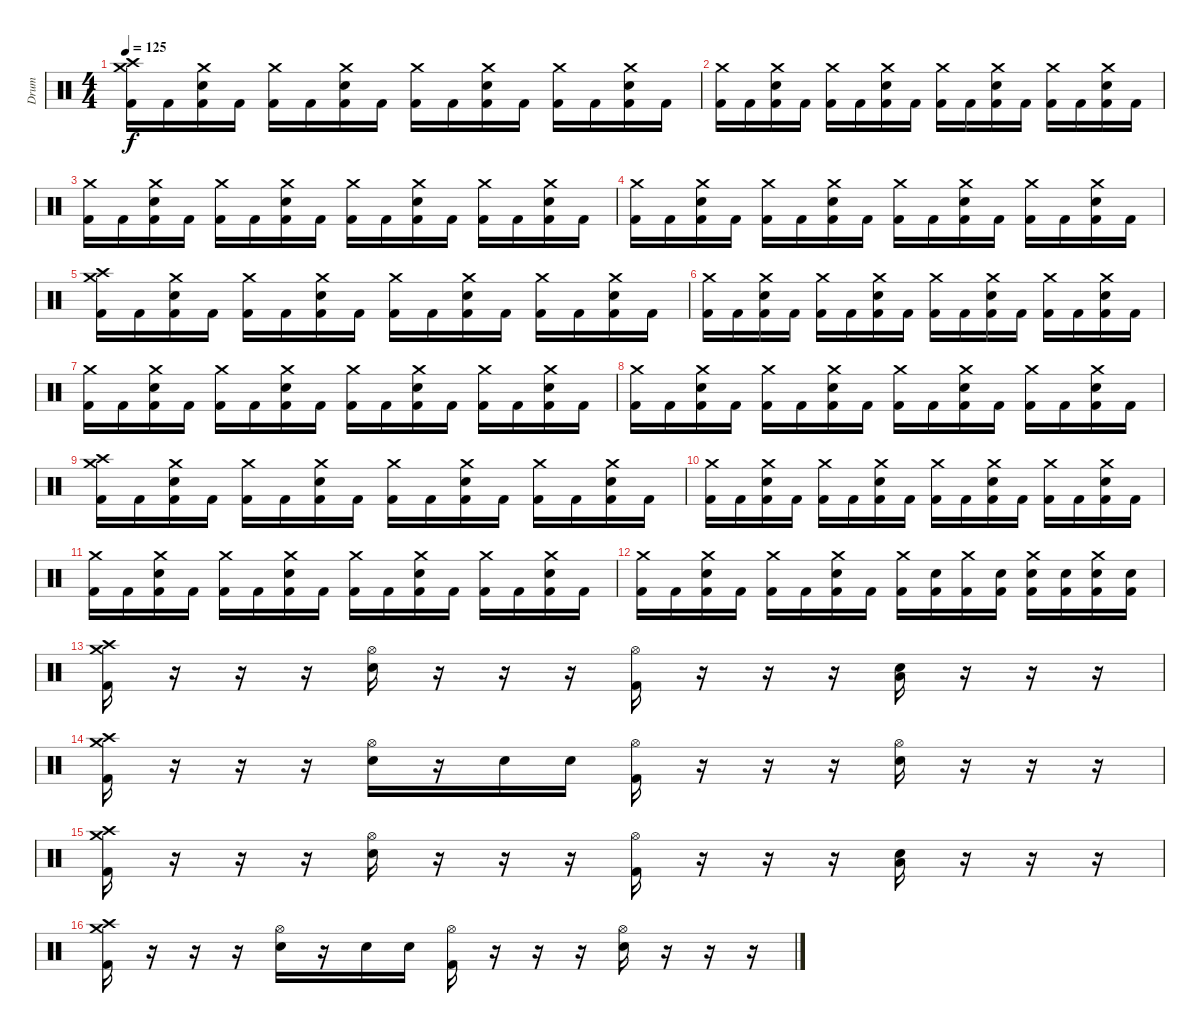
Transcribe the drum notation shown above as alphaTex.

\track ("Drum" "Drum") {instrument percussion}
\staff {score}
\articulation defaults
\ts (4 4)
\tempo 125
\clef neutral
\ks c
("Crash high (hit)" "Crash medium (hit)" "Kick (hit) 2").16{dy f} "Kick (hit) 2".16 ("Crash medium (hit)" "Kick (hit) 2" "Electric Snare (hit)").16 "Kick (hit) 2".16 ("Crash medium (hit)" "Kick (hit) 2").16 "Kick (hit) 2".16 ("Crash medium (hit)" "Kick (hit) 2" "Electric Snare (hit)").16 "Kick (hit) 2".16 ("Crash medium (hit)" "Kick (hit) 2").16 "Kick (hit) 2".16 ("Crash medium (hit)" "Kick (hit) 2" "Electric Snare (hit)").16 "Kick (hit) 2".16 ("Crash medium (hit)" "Kick (hit) 2").16 "Kick (hit) 2".16 ("Crash medium (hit)" "Kick (hit) 2" "Electric Snare (hit)").16 "Kick (hit) 2".16 |
("Crash medium (hit)" "Kick (hit) 2").16 "Kick (hit) 2".16 ("Crash medium (hit)" "Kick (hit) 2" "Electric Snare (hit)").16 "Kick (hit) 2".16 ("Crash medium (hit)" "Kick (hit) 2").16 "Kick (hit) 2".16 ("Crash medium (hit)" "Kick (hit) 2" "Electric Snare (hit)").16 "Kick (hit) 2".16 ("Crash medium (hit)" "Kick (hit) 2").16 "Kick (hit) 2".16 ("Crash medium (hit)" "Kick (hit) 2" "Electric Snare (hit)").16 "Kick (hit) 2".16 ("Crash medium (hit)" "Kick (hit) 2").16 "Kick (hit) 2".16 ("Crash medium (hit)" "Kick (hit) 2" "Electric Snare (hit)").16 "Kick (hit) 2".16 |
("Crash medium (hit)" "Kick (hit) 2").16 "Kick (hit) 2".16 ("Crash medium (hit)" "Kick (hit) 2" "Electric Snare (hit)").16 "Kick (hit) 2".16 ("Crash medium (hit)" "Kick (hit) 2").16 "Kick (hit) 2".16 ("Crash medium (hit)" "Kick (hit) 2" "Electric Snare (hit)").16 "Kick (hit) 2".16 ("Crash medium (hit)" "Kick (hit) 2").16 "Kick (hit) 2".16 ("Crash medium (hit)" "Kick (hit) 2" "Electric Snare (hit)").16 "Kick (hit) 2".16 ("Crash medium (hit)" "Kick (hit) 2").16 "Kick (hit) 2".16 ("Crash medium (hit)" "Kick (hit) 2" "Electric Snare (hit)").16 "Kick (hit) 2".16 |
("Crash medium (hit)" "Kick (hit) 2").16 "Kick (hit) 2".16 ("Crash medium (hit)" "Kick (hit) 2" "Electric Snare (hit)").16 "Kick (hit) 2".16 ("Crash medium (hit)" "Kick (hit) 2").16 "Kick (hit) 2".16 ("Crash medium (hit)" "Kick (hit) 2" "Electric Snare (hit)").16 "Kick (hit) 2".16 ("Crash medium (hit)" "Kick (hit) 2").16 "Kick (hit) 2".16 ("Crash medium (hit)" "Kick (hit) 2" "Electric Snare (hit)").16 "Kick (hit) 2".16 ("Crash medium (hit)" "Kick (hit) 2").16 "Kick (hit) 2".16 ("Crash medium (hit)" "Kick (hit) 2" "Electric Snare (hit)").16 "Kick (hit) 2".16 |
("Crash high (hit)" "Crash medium (hit)" "Kick (hit) 2").16 "Kick (hit) 2".16 ("Crash medium (hit)" "Kick (hit) 2" "Electric Snare (hit)").16 "Kick (hit) 2".16 ("Crash medium (hit)" "Kick (hit) 2").16 "Kick (hit) 2".16 ("Crash medium (hit)" "Kick (hit) 2" "Electric Snare (hit)").16 "Kick (hit) 2".16 ("Crash medium (hit)" "Kick (hit) 2").16 "Kick (hit) 2".16 ("Crash medium (hit)" "Kick (hit) 2" "Electric Snare (hit)").16 "Kick (hit) 2".16 ("Crash medium (hit)" "Kick (hit) 2").16 "Kick (hit) 2".16 ("Crash medium (hit)" "Kick (hit) 2" "Electric Snare (hit)").16 "Kick (hit) 2".16 |
("Crash medium (hit)" "Kick (hit) 2").16 "Kick (hit) 2".16 ("Crash medium (hit)" "Kick (hit) 2" "Electric Snare (hit)").16 "Kick (hit) 2".16 ("Crash medium (hit)" "Kick (hit) 2").16 "Kick (hit) 2".16 ("Crash medium (hit)" "Kick (hit) 2" "Electric Snare (hit)").16 "Kick (hit) 2".16 ("Crash medium (hit)" "Kick (hit) 2").16 "Kick (hit) 2".16 ("Crash medium (hit)" "Kick (hit) 2" "Electric Snare (hit)").16 "Kick (hit) 2".16 ("Crash medium (hit)" "Kick (hit) 2").16 "Kick (hit) 2".16 ("Crash medium (hit)" "Kick (hit) 2" "Electric Snare (hit)").16 "Kick (hit) 2".16 |
("Crash medium (hit)" "Kick (hit) 2").16 "Kick (hit) 2".16 ("Crash medium (hit)" "Kick (hit) 2" "Electric Snare (hit)").16 "Kick (hit) 2".16 ("Crash medium (hit)" "Kick (hit) 2").16 "Kick (hit) 2".16 ("Crash medium (hit)" "Kick (hit) 2" "Electric Snare (hit)").16 "Kick (hit) 2".16 ("Crash medium (hit)" "Kick (hit) 2").16 "Kick (hit) 2".16 ("Crash medium (hit)" "Kick (hit) 2" "Electric Snare (hit)").16 "Kick (hit) 2".16 ("Crash medium (hit)" "Kick (hit) 2").16 "Kick (hit) 2".16 ("Crash medium (hit)" "Kick (hit) 2" "Electric Snare (hit)").16 "Kick (hit) 2".16 |
("Crash medium (hit)" "Kick (hit) 2").16 "Kick (hit) 2".16 ("Crash medium (hit)" "Kick (hit) 2" "Electric Snare (hit)").16 "Kick (hit) 2".16 ("Crash medium (hit)" "Kick (hit) 2").16 "Kick (hit) 2".16 ("Crash medium (hit)" "Kick (hit) 2" "Electric Snare (hit)").16 "Kick (hit) 2".16 ("Crash medium (hit)" "Kick (hit) 2").16 "Kick (hit) 2".16 ("Crash medium (hit)" "Kick (hit) 2" "Electric Snare (hit)").16 "Kick (hit) 2".16 ("Crash medium (hit)" "Kick (hit) 2").16 "Kick (hit) 2".16 ("Crash medium (hit)" "Kick (hit) 2" "Electric Snare (hit)").16 "Kick (hit) 2".16 |
("Crash high (hit)" "Crash medium (hit)" "Kick (hit) 2").16 "Kick (hit) 2".16 ("Crash medium (hit)" "Kick (hit) 2" "Electric Snare (hit)").16 "Kick (hit) 2".16 ("Crash medium (hit)" "Kick (hit) 2").16 "Kick (hit) 2".16 ("Crash medium (hit)" "Kick (hit) 2" "Electric Snare (hit)").16 "Kick (hit) 2".16 ("Crash medium (hit)" "Kick (hit) 2").16 "Kick (hit) 2".16 ("Crash medium (hit)" "Kick (hit) 2" "Electric Snare (hit)").16 "Kick (hit) 2".16 ("Crash medium (hit)" "Kick (hit) 2").16 "Kick (hit) 2".16 ("Crash medium (hit)" "Kick (hit) 2" "Electric Snare (hit)").16 "Kick (hit) 2".16 |
("Crash medium (hit)" "Kick (hit) 2").16 "Kick (hit) 2".16 ("Crash medium (hit)" "Kick (hit) 2" "Electric Snare (hit)").16 "Kick (hit) 2".16 ("Crash medium (hit)" "Kick (hit) 2").16 "Kick (hit) 2".16 ("Crash medium (hit)" "Kick (hit) 2" "Electric Snare (hit)").16 "Kick (hit) 2".16 ("Crash medium (hit)" "Kick (hit) 2").16 "Kick (hit) 2".16 ("Crash medium (hit)" "Kick (hit) 2" "Electric Snare (hit)").16 "Kick (hit) 2".16 ("Crash medium (hit)" "Kick (hit) 2").16 "Kick (hit) 2".16 ("Crash medium (hit)" "Kick (hit) 2" "Electric Snare (hit)").16 "Kick (hit) 2".16 |
("Crash medium (hit)" "Kick (hit) 2").16 "Kick (hit) 2".16 ("Crash medium (hit)" "Kick (hit) 2" "Electric Snare (hit)").16 "Kick (hit) 2".16 ("Crash medium (hit)" "Kick (hit) 2").16 "Kick (hit) 2".16 ("Crash medium (hit)" "Kick (hit) 2" "Electric Snare (hit)").16 "Kick (hit) 2".16 ("Crash medium (hit)" "Kick (hit) 2").16 "Kick (hit) 2".16 ("Crash medium (hit)" "Kick (hit) 2" "Electric Snare (hit)").16 "Kick (hit) 2".16 ("Crash medium (hit)" "Kick (hit) 2").16 "Kick (hit) 2".16 ("Crash medium (hit)" "Kick (hit) 2" "Electric Snare (hit)").16 "Kick (hit) 2".16 |
("Crash medium (hit)" "Kick (hit) 2").16 "Kick (hit) 2".16 ("Crash medium (hit)" "Kick (hit) 2" "Electric Snare (hit)").16 "Kick (hit) 2".16 ("Crash medium (hit)" "Kick (hit) 2").16 "Kick (hit) 2".16 ("Crash medium (hit)" "Kick (hit) 2" "Electric Snare (hit)").16 "Kick (hit) 2".16 ("Crash medium (hit)" "Kick (hit) 2").16 ("Kick (hit) 2" "Electric Snare (hit)").16 ("Crash medium (hit)" "Kick (hit) 2").16 ("Kick (hit) 2" "Electric Snare (hit)").16 ("Crash medium (hit)" "Kick (hit) 2" "Electric Snare (hit)").16 ("Kick (hit) 2" "Electric Snare (hit)").16 ("Crash medium (hit)" "Kick (hit) 2" "Electric Snare (hit)").16 ("Kick (hit) 2" "Electric Snare (hit)").16 |
("Crash high (hit)" "Crash medium (hit)" "Kick (hit) 2").16 r.16 r.16 r.16 ("Hi-Hat (open)" "Electric Snare (hit)").16 r.16 r.16 r.16 ("Hi-Hat (open)" "Kick (hit) 2").16 r.16 r.16 r.16 ("Low Floor Tom (hit)" "Electric Snare (hit)").16 r.16 r.16 r.16 |
("Crash high (hit)" "Crash medium (hit)" "Kick (hit) 2").16 r.16 r.16 r.16 ("Hi-Hat (open)" "Electric Snare (hit)").16 r.16 "Electric Snare (hit)".16 "Electric Snare (hit)".16 ("Hi-Hat (open)" "Kick (hit) 2").16 r.16 r.16 r.16 ("Hi-Hat (open)" "Electric Snare (hit)").16 r.16 r.16 r.16 |
("Crash high (hit)" "Crash medium (hit)" "Kick (hit) 2").16 r.16 r.16 r.16 ("Hi-Hat (open)" "Electric Snare (hit)").16 r.16 r.16 r.16 ("Hi-Hat (open)" "Kick (hit) 2").16 r.16 r.16 r.16 ("Low Floor Tom (hit)" "Electric Snare (hit)").16 r.16 r.16 r.16 |
("Crash high (hit)" "Crash medium (hit)" "Kick (hit) 2").16 r.16 r.16 r.16 ("Hi-Hat (open)" "Electric Snare (hit)").16 r.16 "Electric Snare (hit)".16 "Electric Snare (hit)".16 ("Hi-Hat (open)" "Kick (hit) 2").16 r.16 r.16 r.16 ("Hi-Hat (open)" "Electric Snare (hit)").16 r.16 r.16 r.16
